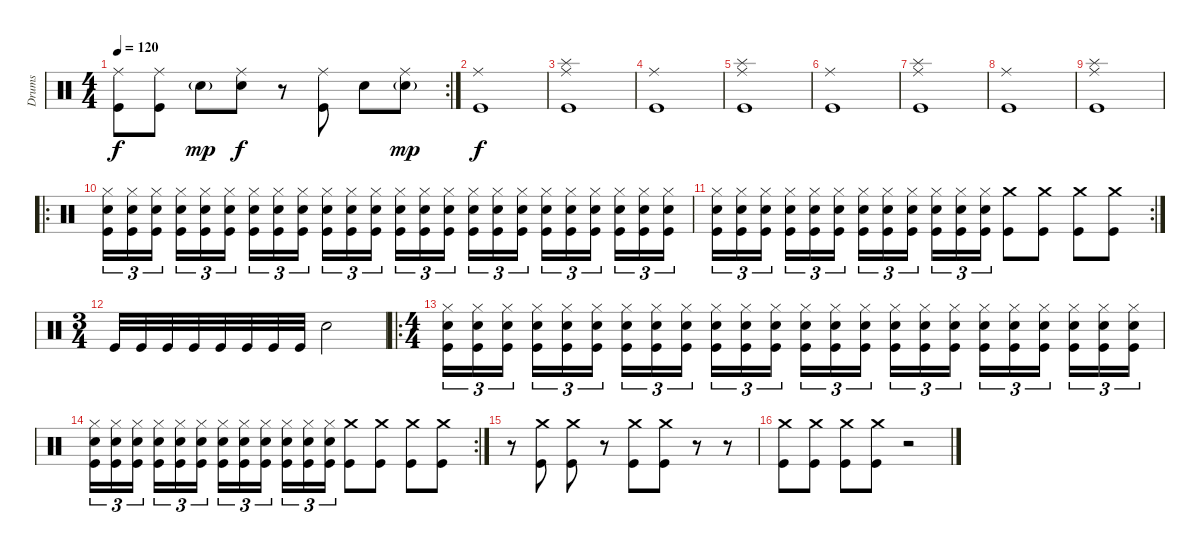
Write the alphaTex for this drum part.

\track ("Drums" "Drums") {instrument percussion}
\staff {score}
\articulation defaults
\rc 2
\ts (4 4)
\tempo 120
\clef neutral
\ks c
("Ride (middle)" "Kick (hit)").8{dy f} ("Ride (middle)" "Kick (hit)").8 "Snare (hit) 2"{g}.8{dy mp} ("Ride (middle)" "Snare (hit) 2").8{dy f} r.8 ("Ride (middle)" "Kick (hit)").8 "Snare (hit) 2".8 ("Ride (middle)" "Snare (hit) 2"{g}).8{dy mp} |
("Ride (middle)" "Kick (hit)").1{dy f} |
("Ride (middle)" "Splash (hit)" "Kick (hit)").1 |
("Ride (middle)" "Kick (hit)").1 |
("Ride (middle)" "Splash (hit)" "Kick (hit)").1 |
("Ride (middle)" "Kick (hit)").1 |
("Ride (middle)" "Splash (hit)" "Kick (hit)").1 |
("Ride (middle)" "Kick (hit)").1 |
("Ride (middle)" "Splash (hit)" "Kick (hit)").1 |
\ro
("Hi-Hat (closed)" "Snare (hit) 2" "Kick (hit)").16{tu (3 2)} ("Hi-Hat (closed)" "Snare (hit) 2" "Kick (hit)").16{tu (3 2)} ("Hi-Hat (closed)" "Snare (hit) 2" "Kick (hit)").16{tu (3 2) beam splitsecondary} ("Hi-Hat (closed)" "Snare (hit) 2" "Kick (hit)").16{tu (3 2)} ("Hi-Hat (closed)" "Snare (hit) 2" "Kick (hit)").16{tu (3 2)} ("Hi-Hat (closed)" "Snare (hit) 2" "Kick (hit)").16{tu (3 2)} ("Hi-Hat (closed)" "Snare (hit) 2" "Kick (hit)").16{tu (3 2)} ("Hi-Hat (closed)" "Snare (hit) 2" "Kick (hit)").16{tu (3 2)} ("Hi-Hat (closed)" "Snare (hit) 2" "Kick (hit)").16{tu (3 2) beam splitsecondary} ("Hi-Hat (closed)" "Snare (hit) 2" "Kick (hit)").16{tu (3 2)} ("Hi-Hat (closed)" "Snare (hit) 2" "Kick (hit)").16{tu (3 2)} ("Hi-Hat (closed)" "Snare (hit) 2" "Kick (hit)").16{tu (3 2)} ("Hi-Hat (closed)" "Snare (hit) 2" "Kick (hit)").16{tu (3 2)} ("Hi-Hat (closed)" "Snare (hit) 2" "Kick (hit)").16{tu (3 2)} ("Hi-Hat (closed)" "Snare (hit) 2" "Kick (hit)").16{tu (3 2) beam splitsecondary} ("Hi-Hat (closed)" "Snare (hit) 2" "Kick (hit)").16{tu (3 2)} ("Hi-Hat (closed)" "Snare (hit) 2" "Kick (hit)").16{tu (3 2)} ("Hi-Hat (closed)" "Snare (hit) 2" "Kick (hit)").16{tu (3 2)} ("Hi-Hat (closed)" "Snare (hit) 2" "Kick (hit)").16{tu (3 2)} ("Hi-Hat (closed)" "Snare (hit) 2" "Kick (hit)").16{tu (3 2)} ("Hi-Hat (closed)" "Snare (hit) 2" "Kick (hit)").16{tu (3 2) beam splitsecondary} ("Hi-Hat (closed)" "Snare (hit) 2" "Kick (hit)").16{tu (3 2)} ("Hi-Hat (closed)" "Snare (hit) 2" "Kick (hit)").16{tu (3 2)} ("Hi-Hat (closed)" "Snare (hit) 2" "Kick (hit)").16{tu (3 2)} |
\rc 2
("Hi-Hat (closed)" "Snare (hit) 2" "Kick (hit)").16{tu (3 2)} ("Hi-Hat (closed)" "Snare (hit) 2" "Kick (hit)").16{tu (3 2)} ("Hi-Hat (closed)" "Snare (hit) 2" "Kick (hit)").16{tu (3 2) beam splitsecondary} ("Hi-Hat (closed)" "Snare (hit) 2" "Kick (hit)").16{tu (3 2)} ("Hi-Hat (closed)" "Snare (hit) 2" "Kick (hit)").16{tu (3 2)} ("Hi-Hat (closed)" "Snare (hit) 2" "Kick (hit)").16{tu (3 2)} ("Hi-Hat (closed)" "Snare (hit) 2" "Kick (hit)").16{tu (3 2)} ("Hi-Hat (closed)" "Snare (hit) 2" "Kick (hit)").16{tu (3 2)} ("Hi-Hat (closed)" "Snare (hit) 2" "Kick (hit)").16{tu (3 2) beam splitsecondary} ("Hi-Hat (closed)" "Snare (hit) 2" "Kick (hit)").16{tu (3 2)} ("Hi-Hat (closed)" "Snare (hit) 2" "Kick (hit)").16{tu (3 2)} ("Hi-Hat (closed)" "Snare (hit) 2" "Kick (hit)").16{tu (3 2)} ("Crash medium (hit)" "Kick (hit)").8 ("Crash medium (hit)" "Kick (hit)").8 ("Crash medium (hit)" "Kick (hit)").8 ("Crash medium (hit)" "Kick (hit)").8 |
\ts (3 4)
"Kick (hit)".32 "Kick (hit)".32 "Kick (hit)".32 "Kick (hit)".32 "Kick (hit)".32 "Kick (hit)".32 "Kick (hit)".32 "Kick (hit)".32 "Snare (hit) 2".2 |
\ro
\ts (4 4)
("Hi-Hat (closed)" "Snare (hit) 2" "Kick (hit)").16{tu (3 2)} ("Hi-Hat (closed)" "Snare (hit) 2" "Kick (hit)").16{tu (3 2)} ("Hi-Hat (closed)" "Snare (hit) 2" "Kick (hit)").16{tu (3 2) beam splitsecondary} ("Hi-Hat (closed)" "Snare (hit) 2" "Kick (hit)").16{tu (3 2)} ("Hi-Hat (closed)" "Snare (hit) 2" "Kick (hit)").16{tu (3 2)} ("Hi-Hat (closed)" "Snare (hit) 2" "Kick (hit)").16{tu (3 2)} ("Hi-Hat (closed)" "Snare (hit) 2" "Kick (hit)").16{tu (3 2)} ("Hi-Hat (closed)" "Snare (hit) 2" "Kick (hit)").16{tu (3 2)} ("Hi-Hat (closed)" "Snare (hit) 2" "Kick (hit)").16{tu (3 2) beam splitsecondary} ("Hi-Hat (closed)" "Snare (hit) 2" "Kick (hit)").16{tu (3 2)} ("Hi-Hat (closed)" "Snare (hit) 2" "Kick (hit)").16{tu (3 2)} ("Hi-Hat (closed)" "Snare (hit) 2" "Kick (hit)").16{tu (3 2)} ("Hi-Hat (closed)" "Snare (hit) 2" "Kick (hit)").16{tu (3 2)} ("Hi-Hat (closed)" "Snare (hit) 2" "Kick (hit)").16{tu (3 2)} ("Hi-Hat (closed)" "Snare (hit) 2" "Kick (hit)").16{tu (3 2) beam splitsecondary} ("Hi-Hat (closed)" "Snare (hit) 2" "Kick (hit)").16{tu (3 2)} ("Hi-Hat (closed)" "Snare (hit) 2" "Kick (hit)").16{tu (3 2)} ("Hi-Hat (closed)" "Snare (hit) 2" "Kick (hit)").16{tu (3 2)} ("Hi-Hat (closed)" "Snare (hit) 2" "Kick (hit)").16{tu (3 2)} ("Hi-Hat (closed)" "Snare (hit) 2" "Kick (hit)").16{tu (3 2)} ("Hi-Hat (closed)" "Snare (hit) 2" "Kick (hit)").16{tu (3 2) beam splitsecondary} ("Hi-Hat (closed)" "Snare (hit) 2" "Kick (hit)").16{tu (3 2)} ("Hi-Hat (closed)" "Snare (hit) 2" "Kick (hit)").16{tu (3 2)} ("Hi-Hat (closed)" "Snare (hit) 2" "Kick (hit)").16{tu (3 2)} |
\rc 2
("Hi-Hat (closed)" "Snare (hit) 2" "Kick (hit)").16{tu (3 2)} ("Hi-Hat (closed)" "Snare (hit) 2" "Kick (hit)").16{tu (3 2)} ("Hi-Hat (closed)" "Snare (hit) 2" "Kick (hit)").16{tu (3 2) beam splitsecondary} ("Hi-Hat (closed)" "Snare (hit) 2" "Kick (hit)").16{tu (3 2)} ("Hi-Hat (closed)" "Snare (hit) 2" "Kick (hit)").16{tu (3 2)} ("Hi-Hat (closed)" "Snare (hit) 2" "Kick (hit)").16{tu (3 2)} ("Hi-Hat (closed)" "Snare (hit) 2" "Kick (hit)").16{tu (3 2)} ("Hi-Hat (closed)" "Snare (hit) 2" "Kick (hit)").16{tu (3 2)} ("Hi-Hat (closed)" "Snare (hit) 2" "Kick (hit)").16{tu (3 2) beam splitsecondary} ("Hi-Hat (closed)" "Snare (hit) 2" "Kick (hit)").16{tu (3 2)} ("Hi-Hat (closed)" "Snare (hit) 2" "Kick (hit)").16{tu (3 2)} ("Hi-Hat (closed)" "Snare (hit) 2" "Kick (hit)").16{tu (3 2)} ("Crash medium (hit)" "Kick (hit)").8 ("Crash medium (hit)" "Kick (hit)").8 ("Crash medium (hit)" "Kick (hit)").8 ("Crash medium (hit)" "Kick (hit)").8 |
r.8 ("Crash medium (hit)" "Kick (hit)").8 ("Crash medium (hit)" "Kick (hit)").8 r.8 ("Crash medium (hit)" "Kick (hit)").8 ("Crash medium (hit)" "Kick (hit)").8 r.8 r.8 |
("Crash medium (hit)" "Kick (hit)").8 ("Crash medium (hit)" "Kick (hit)").8 ("Crash medium (hit)" "Kick (hit)").8 ("Crash medium (hit)" "Kick (hit)").8 r.2
